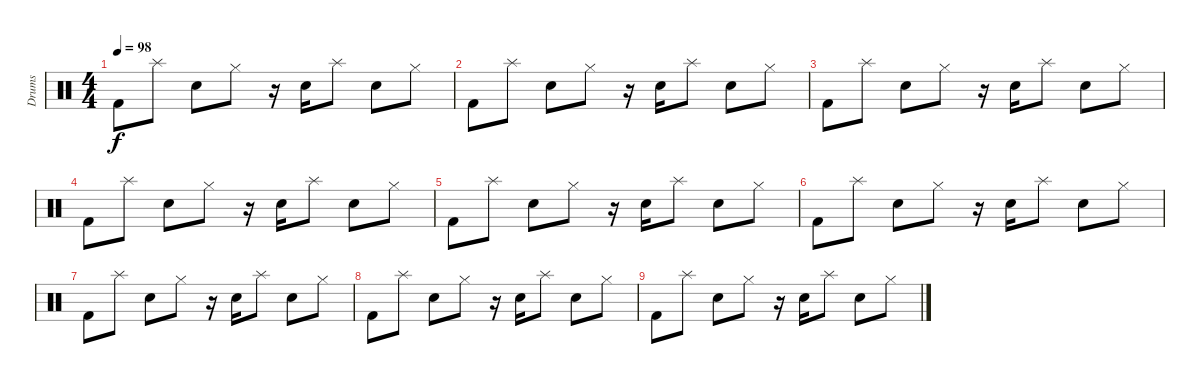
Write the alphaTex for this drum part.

\track ("Drums" "Drums") {instrument percussion}
\staff {score}
\articulation defaults
\ts (4 4)
\tempo 98
\clef neutral
\ks c "Kick (hit) 2".8{dy f} "Splash (hit)".8 "Snare (hit) 2".8 "Hi-Hat (closed)".8
r.16 "Snare (hit) 2".16 "Splash (hit)".8 "Snare (hit) 2".8 "Hi-Hat (closed)".8 |
"Kick (hit) 2".8 "Splash (hit)".8 "Snare (hit) 2".8 "Hi-Hat (closed)".8 r.16 "Snare (hit) 2".16 "Splash (hit)".8 "Snare (hit) 2".8 "Hi-Hat (closed)".8 |
"Kick (hit) 2".8 "Splash (hit)".8 "Snare (hit) 2".8 "Hi-Hat (closed)".8 r.16 "Snare (hit) 2".16 "Splash (hit)".8 "Snare (hit) 2".8 "Hi-Hat (closed)".8 |
"Kick (hit) 2".8 "Splash (hit)".8 "Snare (hit) 2".8 "Hi-Hat (closed)".8 r.16 "Snare (hit) 2".16 "Splash (hit)".8 "Snare (hit) 2".8 "Hi-Hat (closed)".8 |
"Kick (hit) 2".8 "Splash (hit)".8 "Snare (hit) 2".8 "Hi-Hat (closed)".8 r.16 "Snare (hit) 2".16 "Splash (hit)".8 "Snare (hit) 2".8 "Hi-Hat (closed)".8 |
"Kick (hit) 2".8 "Splash (hit)".8 "Snare (hit) 2".8 "Hi-Hat (closed)".8 r.16 "Snare (hit) 2".16 "Splash (hit)".8 "Snare (hit) 2".8 "Hi-Hat (closed)".8 |
"Kick (hit) 2".8 "Splash (hit)".8 "Snare (hit) 2".8 "Hi-Hat (closed)".8 r.16 "Snare (hit) 2".16 "Splash (hit)".8 "Snare (hit) 2".8 "Hi-Hat (closed)".8 |
"Kick (hit) 2".8 "Splash (hit)".8 "Snare (hit) 2".8 "Hi-Hat (closed)".8 r.16 "Snare (hit) 2".16 "Splash (hit)".8 "Snare (hit) 2".8 "Hi-Hat (closed)".8 |
"Kick (hit) 2".8 "Splash (hit)".8 "Snare (hit) 2".8 "Hi-Hat (closed)".8 r.16 "Snare (hit) 2".16 "Splash (hit)".8 "Snare (hit) 2".8 "Hi-Hat (closed)".8
